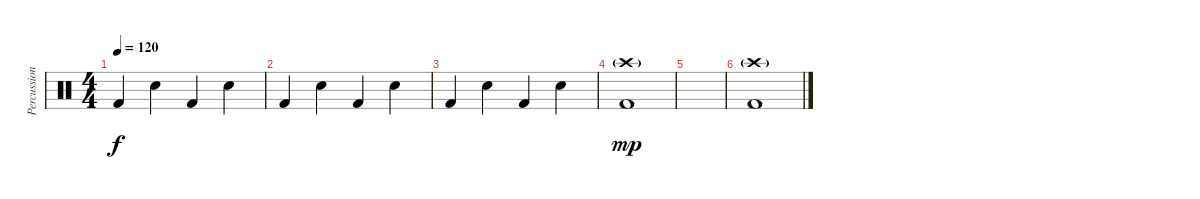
\track ("Percussion" "Percussion") {instrument percussion}
\staff {score}
\articulation defaults
\ts (4 4)
\tempo 120
\clef neutral
\ks c "Kick (hit) 2".4{dy f} "Snare (hit) 2".4 "Kick (hit) 2".4 "Snare (hit) 2".4
|
"Kick (hit) 2".4 "Snare (hit) 2".4 "Kick (hit) 2".4 "Snare (hit) 2".4 |
"Kick (hit) 2".4 "Snare (hit) 2".4 "Kick (hit) 2".4 "Snare (hit) 2".4 |
("Crash high (hit)"{g} "Kick (hit) 2").1{dy mp} |
|
("Crash high (hit)"{g} "Kick (hit) 2").1
